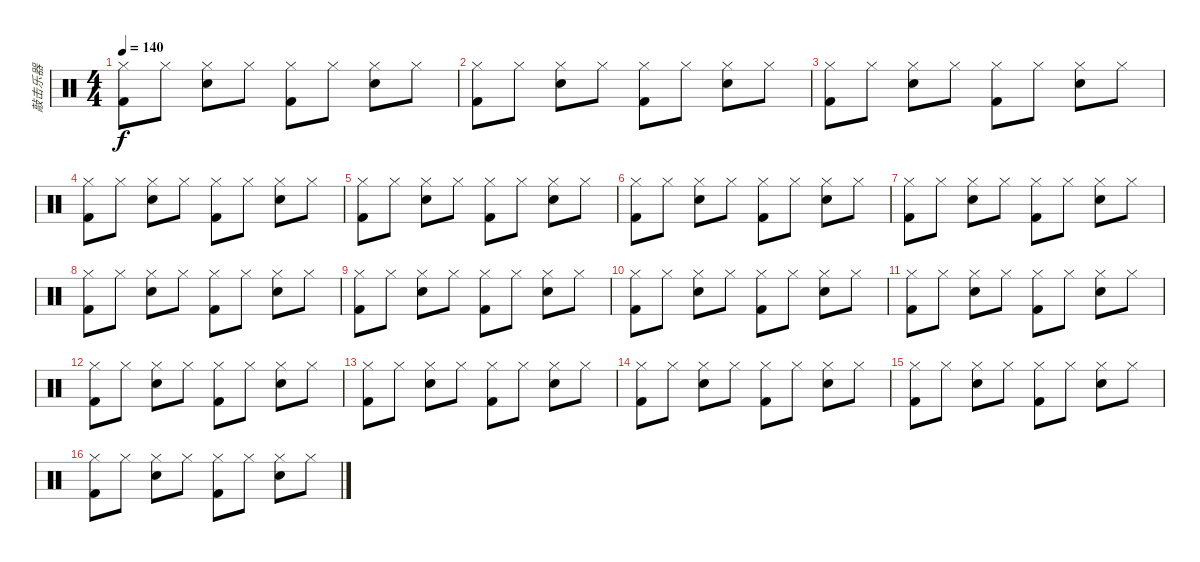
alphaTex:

\track ("敲击乐器" "敲击乐器") {instrument percussion}
\staff {score}
\articulation defaults
\ts (4 4)
\tempo 140
\clef neutral
\ks c
("Kick (hit) 2" "Hi-Hat (closed)").8{dy f} "Hi-Hat (closed)".8 ("Snare (hit) 2" "Hi-Hat (closed)").8 "Hi-Hat (closed)".8 ("Kick (hit) 2" "Hi-Hat (closed)").8 "Hi-Hat (closed)".8 ("Snare (hit) 2" "Hi-Hat (closed)").8 "Hi-Hat (closed)".8 |
("Kick (hit) 2" "Hi-Hat (closed)").8 "Hi-Hat (closed)".8 ("Snare (hit) 2" "Hi-Hat (closed)").8 "Hi-Hat (closed)".8 ("Kick (hit) 2" "Hi-Hat (closed)").8 "Hi-Hat (closed)".8 ("Snare (hit) 2" "Hi-Hat (closed)").8 "Hi-Hat (closed)".8 |
("Kick (hit) 2" "Hi-Hat (closed)").8 "Hi-Hat (closed)".8 ("Snare (hit) 2" "Hi-Hat (closed)").8 "Hi-Hat (closed)".8 ("Kick (hit) 2" "Hi-Hat (closed)").8 "Hi-Hat (closed)".8 ("Snare (hit) 2" "Hi-Hat (closed)").8 "Hi-Hat (closed)".8 |
("Kick (hit) 2" "Hi-Hat (closed)").8 "Hi-Hat (closed)".8 ("Snare (hit) 2" "Hi-Hat (closed)").8 "Hi-Hat (closed)".8 ("Kick (hit) 2" "Hi-Hat (closed)").8 "Hi-Hat (closed)".8 ("Snare (hit) 2" "Hi-Hat (closed)").8 "Hi-Hat (closed)".8 |
("Kick (hit) 2" "Hi-Hat (closed)").8 "Hi-Hat (closed)".8 ("Snare (hit) 2" "Hi-Hat (closed)").8 "Hi-Hat (closed)".8 ("Kick (hit) 2" "Hi-Hat (closed)").8 "Hi-Hat (closed)".8 ("Snare (hit) 2" "Hi-Hat (closed)").8 "Hi-Hat (closed)".8 |
("Kick (hit) 2" "Hi-Hat (closed)").8 "Hi-Hat (closed)".8 ("Snare (hit) 2" "Hi-Hat (closed)").8 "Hi-Hat (closed)".8 ("Kick (hit) 2" "Hi-Hat (closed)").8 "Hi-Hat (closed)".8 ("Snare (hit) 2" "Hi-Hat (closed)").8 "Hi-Hat (closed)".8 |
("Kick (hit) 2" "Hi-Hat (closed)").8 "Hi-Hat (closed)".8 ("Snare (hit) 2" "Hi-Hat (closed)").8 "Hi-Hat (closed)".8 ("Kick (hit) 2" "Hi-Hat (closed)").8 "Hi-Hat (closed)".8 ("Snare (hit) 2" "Hi-Hat (closed)").8 "Hi-Hat (closed)".8 |
("Kick (hit) 2" "Hi-Hat (closed)").8 "Hi-Hat (closed)".8 ("Snare (hit) 2" "Hi-Hat (closed)").8 "Hi-Hat (closed)".8 ("Kick (hit) 2" "Hi-Hat (closed)").8 "Hi-Hat (closed)".8 ("Snare (hit) 2" "Hi-Hat (closed)").8 "Hi-Hat (closed)".8 |
("Kick (hit) 2" "Hi-Hat (closed)").8 "Hi-Hat (closed)".8 ("Snare (hit) 2" "Hi-Hat (closed)").8 "Hi-Hat (closed)".8 ("Kick (hit) 2" "Hi-Hat (closed)").8 "Hi-Hat (closed)".8 ("Snare (hit) 2" "Hi-Hat (closed)").8 "Hi-Hat (closed)".8 |
("Kick (hit) 2" "Hi-Hat (closed)").8 "Hi-Hat (closed)".8 ("Snare (hit) 2" "Hi-Hat (closed)").8 "Hi-Hat (closed)".8 ("Kick (hit) 2" "Hi-Hat (closed)").8 "Hi-Hat (closed)".8 ("Snare (hit) 2" "Hi-Hat (closed)").8 "Hi-Hat (closed)".8 |
("Kick (hit) 2" "Hi-Hat (closed)").8 "Hi-Hat (closed)".8 ("Snare (hit) 2" "Hi-Hat (closed)").8 "Hi-Hat (closed)".8 ("Kick (hit) 2" "Hi-Hat (closed)").8 "Hi-Hat (closed)".8 ("Snare (hit) 2" "Hi-Hat (closed)").8 "Hi-Hat (closed)".8 |
("Kick (hit) 2" "Hi-Hat (closed)").8 "Hi-Hat (closed)".8 ("Snare (hit) 2" "Hi-Hat (closed)").8 "Hi-Hat (closed)".8 ("Kick (hit) 2" "Hi-Hat (closed)").8 "Hi-Hat (closed)".8 ("Snare (hit) 2" "Hi-Hat (closed)").8 "Hi-Hat (closed)".8 |
("Kick (hit) 2" "Hi-Hat (closed)").8 "Hi-Hat (closed)".8 ("Snare (hit) 2" "Hi-Hat (closed)").8 "Hi-Hat (closed)".8 ("Kick (hit) 2" "Hi-Hat (closed)").8 "Hi-Hat (closed)".8 ("Snare (hit) 2" "Hi-Hat (closed)").8 "Hi-Hat (closed)".8 |
("Kick (hit) 2" "Hi-Hat (closed)").8 "Hi-Hat (closed)".8 ("Snare (hit) 2" "Hi-Hat (closed)").8 "Hi-Hat (closed)".8 ("Kick (hit) 2" "Hi-Hat (closed)").8 "Hi-Hat (closed)".8 ("Snare (hit) 2" "Hi-Hat (closed)").8 "Hi-Hat (closed)".8 |
("Kick (hit) 2" "Hi-Hat (closed)").8 "Hi-Hat (closed)".8 ("Snare (hit) 2" "Hi-Hat (closed)").8 "Hi-Hat (closed)".8 ("Kick (hit) 2" "Hi-Hat (closed)").8 "Hi-Hat (closed)".8 ("Snare (hit) 2" "Hi-Hat (closed)").8 "Hi-Hat (closed)".8 |
("Kick (hit) 2" "Hi-Hat (closed)").8 "Hi-Hat (closed)".8 ("Snare (hit) 2" "Hi-Hat (closed)").8 "Hi-Hat (closed)".8 ("Kick (hit) 2" "Hi-Hat (closed)").8 "Hi-Hat (closed)".8 ("Snare (hit) 2" "Hi-Hat (closed)").8 "Hi-Hat (closed)".8
